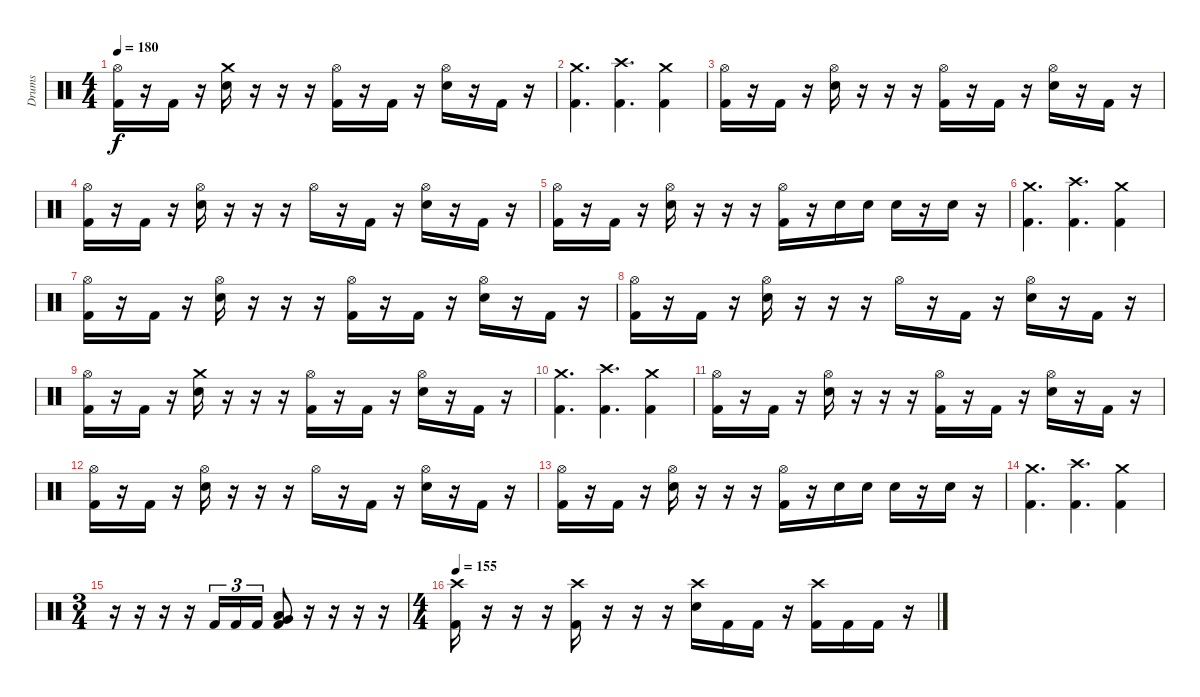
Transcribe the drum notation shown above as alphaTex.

\track ("Drums" "Drums") {instrument percussion}
\staff {score}
\articulation defaults
\ts (4 4)
\tempo 180
\clef neutral
\ks c
("Hi-Hat (open)" "Kick (hit) 2").16{dy f} r.16 "Kick (hit) 2".16 r.16 ("Crash medium (hit)" "Electric Snare (hit)").16 r.16 r.16 r.16 ("Hi-Hat (open)" "Kick (hit) 2").16 r.16 "Kick (hit) 2".16 r.16 ("Hi-Hat (open)" "Electric Snare (hit)").16 r.16 "Kick (hit) 2".16 r.16 |
("Crash medium (hit)" "Kick (hit) 2").4{d} ("Crash high (hit)" "Kick (hit) 2").4{d} ("Crash medium (hit)" "Kick (hit) 2").4 |
("Hi-Hat (open)" "Kick (hit) 2").16 r.16 "Kick (hit) 2".16 r.16 ("Hi-Hat (open)" "Electric Snare (hit)").16 r.16 r.16 r.16 ("Hi-Hat (open)" "Kick (hit) 2").16 r.16 "Kick (hit) 2".16 r.16 ("Hi-Hat (open)" "Electric Snare (hit)").16 r.16 "Kick (hit) 2".16 r.16 |
("Hi-Hat (open)" "Kick (hit) 2").16 r.16 "Kick (hit) 2".16 r.16 ("Hi-Hat (open)" "Electric Snare (hit)").16 r.16 r.16 r.16 "Hi-Hat (open)".16 r.16 "Kick (hit) 2".16 r.16 ("Hi-Hat (open)" "Electric Snare (hit)").16 r.16 "Kick (hit) 2".16 r.16 |
("Hi-Hat (open)" "Kick (hit) 2").16 r.16 "Kick (hit) 2".16 r.16 ("Hi-Hat (open)" "Electric Snare (hit)").16 r.16 r.16 r.16 ("Hi-Hat (open)" "Kick (hit) 2").16 r.16 "Electric Snare (hit)".16 "Electric Snare (hit)".16 "Electric Snare (hit)".16 r.16 "Electric Snare (hit)".16 r.16 |
("Crash medium (hit)" "Kick (hit) 2").4{d} ("Crash high (hit)" "Kick (hit) 2").4{d} ("Crash medium (hit)" "Kick (hit) 2").4 |
("Hi-Hat (open)" "Kick (hit) 2").16 r.16 "Kick (hit) 2".16 r.16 ("Hi-Hat (open)" "Electric Snare (hit)").16 r.16 r.16 r.16 ("Hi-Hat (open)" "Kick (hit) 2").16 r.16 "Kick (hit) 2".16 r.16 ("Hi-Hat (open)" "Electric Snare (hit)").16 r.16 "Kick (hit) 2".16 r.16 |
("Hi-Hat (open)" "Kick (hit) 2").16 r.16 "Kick (hit) 2".16 r.16 ("Hi-Hat (open)" "Electric Snare (hit)").16 r.16 r.16 r.16 "Hi-Hat (open)".16 r.16 "Kick (hit) 2".16 r.16 ("Hi-Hat (open)" "Electric Snare (hit)").16 r.16 "Kick (hit) 2".16 r.16 |
("Hi-Hat (open)" "Kick (hit) 2").16 r.16 "Kick (hit) 2".16 r.16 ("Crash medium (hit)" "Electric Snare (hit)").16 r.16 r.16 r.16 ("Hi-Hat (open)" "Kick (hit) 2").16 r.16 "Kick (hit) 2".16 r.16 ("Hi-Hat (open)" "Electric Snare (hit)").16 r.16 "Kick (hit) 2".16 r.16 |
("Crash medium (hit)" "Kick (hit) 2").4{d} ("Crash high (hit)" "Kick (hit) 2").4{d} ("Crash medium (hit)" "Kick (hit) 2").4 |
("Hi-Hat (open)" "Kick (hit) 2").16 r.16 "Kick (hit) 2".16 r.16 ("Hi-Hat (open)" "Electric Snare (hit)").16 r.16 r.16 r.16 ("Hi-Hat (open)" "Kick (hit) 2").16 r.16 "Kick (hit) 2".16 r.16 ("Hi-Hat (open)" "Electric Snare (hit)").16 r.16 "Kick (hit) 2".16 r.16 |
("Hi-Hat (open)" "Kick (hit) 2").16 r.16 "Kick (hit) 2".16 r.16 ("Hi-Hat (open)" "Electric Snare (hit)").16 r.16 r.16 r.16 "Hi-Hat (open)".16 r.16 "Kick (hit) 2".16 r.16 ("Hi-Hat (open)" "Electric Snare (hit)").16 r.16 "Kick (hit) 2".16 r.16 |
("Hi-Hat (open)" "Kick (hit) 2").16 r.16 "Kick (hit) 2".16 r.16 ("Hi-Hat (open)" "Electric Snare (hit)").16 r.16 r.16 r.16 ("Hi-Hat (open)" "Kick (hit) 2").16 r.16 "Electric Snare (hit)".16 "Electric Snare (hit)".16 "Electric Snare (hit)".16 r.16 "Electric Snare (hit)".16 r.16 |
("Crash medium (hit)" "Kick (hit) 2").4{d} ("Crash high (hit)" "Kick (hit) 2").4{d} ("Crash medium (hit)" "Kick (hit) 2").4 |
\ts (3 4)
r.16 r.16 r.16 r.16 "Kick (hit) 2".16{tu (3 2)} "Kick (hit) 2".16{tu (3 2)} "Kick (hit) 2".16{tu (3 2)} ("Very Low Tom (hit)" "Low Floor Tom (hit)" "Kick (hit) 2").8 r.16 r.16 r.16 r.16 |
\ts (4 4)
\tempo 155
("Crash high (hit)" "Kick (hit) 2").16 r.16 r.16 r.16 ("Crash high (hit)" "Kick (hit) 2").16 r.16 r.16 r.16 ("Crash high (hit)" "Electric Snare (hit)").16 "Kick (hit) 2".16 "Kick (hit) 2".16 r.16 ("Crash high (hit)" "Kick (hit) 2").16 "Kick (hit) 2".16 "Kick (hit) 2".16 r.16
